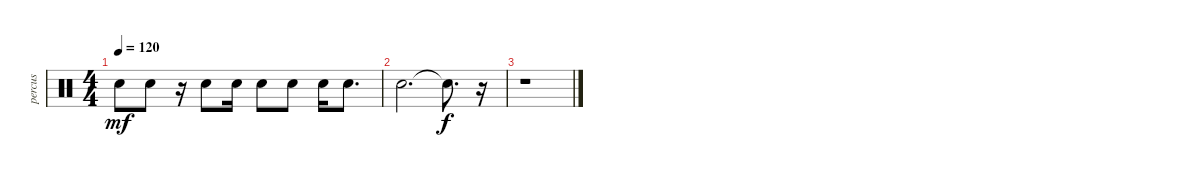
\track ("percus" "percus") {instrument percussion}
\staff {score}
\articulation defaults
\ts (4 4)
\tempo 120
\clef neutral
\ks c "Snare (hit)".8{dy mf} "Snare (hit)".8
r.16 "Snare (hit)".8 "Snare (hit)".16 "Snare (hit)".8 "Snare (hit)".8 "Snare (hit)".16 "Snare (hit)".8{d} |
"Snare (hit)".2{d} "Snare (hit)"{t}.8{d dy f} r.16 |
r.1
